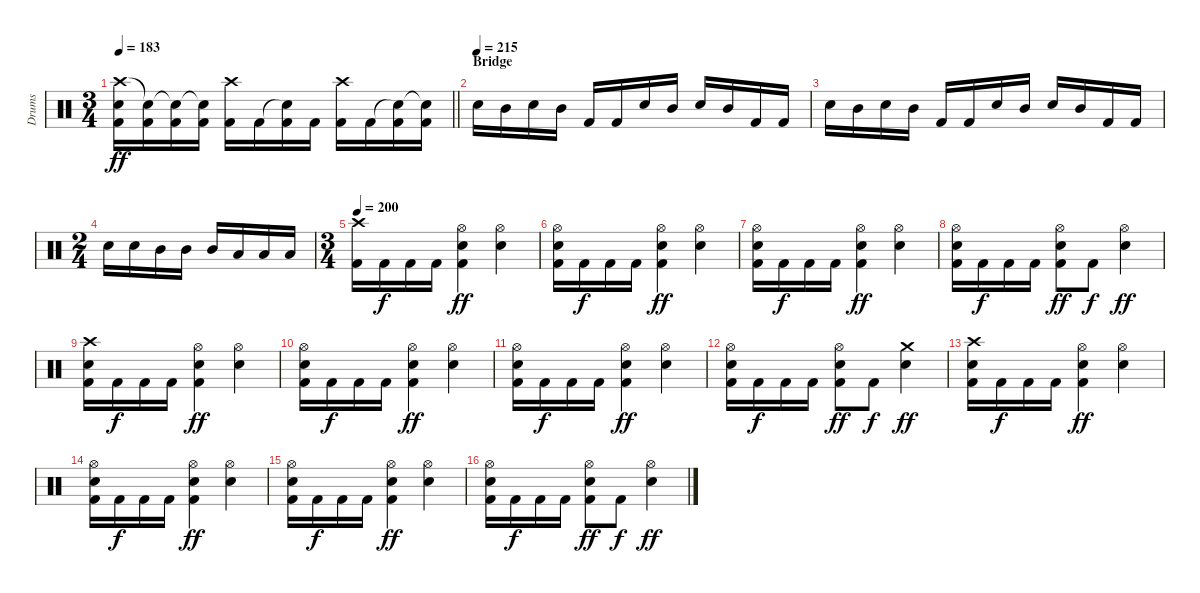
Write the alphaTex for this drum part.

\track ("Drums" "Drums") {instrument percussion}
\staff {score}
\articulation defaults
\ts (3 4)
\tempo 183
\clef neutral
\barLineRight lightlight
\ks c
("Crash high (hit)" "Snare (hit) 2" "Kick (hit) 2").16{dy ff} ("Snare (hit)"{t} "Kick (hit) 2").16 ("Snare (hit)"{t} "Kick (hit) 2").16 ("Snare (hit)"{t} "Kick (hit) 2").16 ("Crash high (hit)" "Kick (hit) 2").16 "Kick (hit) 2".16 ("Snare (hit)"{t} "Kick (hit) 2").16 "Kick (hit) 2".16 ("Crash high (hit)" "Kick (hit) 2").16 "Kick (hit) 2".16 ("Snare (hit)"{t} "Kick (hit) 2").16 ("Snare (hit)"{t} "Kick (hit) 2").16 |
\section ("" "Bridge")
\tempo (215)
"Snare (hit) 2".16 "Mid Tom (hit)".16 "Snare (hit) 2".16 "Mid Tom (hit)".16 "Kick (hit) 2".16 "Kick (hit) 2".16 "Snare (hit) 2".16 "Mid Tom (hit)".16 "Snare (hit) 2".16 "Mid Tom (hit)".16 "Kick (hit) 2".16 "Kick (hit) 2".16 |
"Snare (hit) 2".16 "Mid Tom (hit)".16 "Snare (hit) 2".16 "Mid Tom (hit)".16 "Kick (hit) 2".16 "Kick (hit) 2".16 "Snare (hit) 2".16 "Mid Tom (hit)".16 "Snare (hit) 2".16 "Mid Tom (hit)".16 "Kick (hit) 2".16 "Kick (hit) 2".16 |
\ts (2 4)
"Snare (hit) 2".16 "Snare (hit) 2".16 "Mid Tom (hit)".16 "Mid Tom (hit)".16 "Mid Tom (hit)".16 "Low Tom (hit)".16 "Low Tom (hit)".16 "Low Tom (hit)".16 |
\ts (3 4)
\tempo 195
\tempo 200
("Crash high (hit)" "Kick (hit) 2").16 "Kick (hit) 2".16{dy f} "Kick (hit) 2".16 "Kick (hit) 2".16 ("Hi-Hat (open)" "Snare (hit) 2" "Kick (hit) 2").4{dy ff} ("Hi-Hat (open)" "Snare (hit) 2").4 |
("Hi-Hat (open)" "Snare (hit) 2" "Kick (hit) 2").16 "Kick (hit) 2".16{dy f} "Kick (hit) 2".16 "Kick (hit) 2".16 ("Hi-Hat (open)" "Snare (hit) 2" "Kick (hit) 2").4{dy ff} ("Hi-Hat (open)" "Snare (hit) 2").4 |
("Hi-Hat (open)" "Snare (hit) 2" "Kick (hit) 2").16 "Kick (hit) 2".16{dy f} "Kick (hit) 2".16 "Kick (hit) 2".16 ("Hi-Hat (open)" "Snare (hit) 2" "Kick (hit) 2").4{dy ff} ("Hi-Hat (open)" "Snare (hit) 2").4 |
("Hi-Hat (open)" "Snare (hit) 2" "Kick (hit) 2").16 "Kick (hit) 2".16{dy f} "Kick (hit) 2".16 "Kick (hit) 2".16 ("Hi-Hat (open)" "Snare (hit) 2" "Kick (hit) 2").8{dy ff} "Kick (hit) 2".8{dy f} ("Hi-Hat (open)" "Snare (hit) 2").4{dy ff} |
("Crash high (hit)" "Snare (hit) 2" "Kick (hit) 2").16 "Kick (hit) 2".16{dy f} "Kick (hit) 2".16 "Kick (hit) 2".16 ("Hi-Hat (open)" "Snare (hit) 2" "Kick (hit) 2").4{dy ff} ("Hi-Hat (open)" "Snare (hit) 2").4 |
("Hi-Hat (open)" "Snare (hit) 2" "Kick (hit) 2").16 "Kick (hit) 2".16{dy f} "Kick (hit) 2".16 "Kick (hit) 2".16 ("Hi-Hat (open)" "Snare (hit) 2" "Kick (hit) 2").4{dy ff} ("Hi-Hat (open)" "Snare (hit) 2").4 |
("Hi-Hat (open)" "Snare (hit) 2" "Kick (hit) 2").16 "Kick (hit) 2".16{dy f} "Kick (hit) 2".16 "Kick (hit) 2".16 ("Hi-Hat (open)" "Snare (hit) 2" "Kick (hit) 2").4{dy ff} ("Hi-Hat (open)" "Snare (hit) 2").4 |
("Hi-Hat (open)" "Snare (hit) 2" "Kick (hit) 2").16 "Kick (hit) 2".16{dy f} "Kick (hit) 2".16 "Kick (hit) 2".16 ("Hi-Hat (open)" "Snare (hit) 2" "Kick (hit) 2").8{dy ff} "Kick (hit) 2".8{dy f} ("Crash medium (hit)" "Snare (hit) 2").4{dy ff} |
("Crash high (hit)" "Snare (hit) 2" "Kick (hit) 2").16 "Kick (hit) 2".16{dy f} "Kick (hit) 2".16 "Kick (hit) 2".16 ("Hi-Hat (open)" "Snare (hit) 2" "Kick (hit) 2").4{dy ff} ("Hi-Hat (open)" "Snare (hit) 2").4 |
("Hi-Hat (open)" "Snare (hit) 2" "Kick (hit) 2").16 "Kick (hit) 2".16{dy f} "Kick (hit) 2".16 "Kick (hit) 2".16 ("Hi-Hat (open)" "Snare (hit) 2" "Kick (hit) 2").4{dy ff} ("Hi-Hat (open)" "Snare (hit) 2").4 |
("Hi-Hat (open)" "Snare (hit) 2" "Kick (hit) 2").16 "Kick (hit) 2".16{dy f} "Kick (hit) 2".16 "Kick (hit) 2".16 ("Hi-Hat (open)" "Snare (hit) 2" "Kick (hit) 2").4{dy ff} ("Hi-Hat (open)" "Snare (hit) 2").4 |
("Hi-Hat (open)" "Snare (hit) 2" "Kick (hit) 2").16 "Kick (hit) 2".16{dy f} "Kick (hit) 2".16 "Kick (hit) 2".16 ("Hi-Hat (open)" "Snare (hit) 2" "Kick (hit) 2").8{dy ff} "Kick (hit) 2".8{dy f} ("Hi-Hat (open)" "Snare (hit) 2").4{dy ff}
